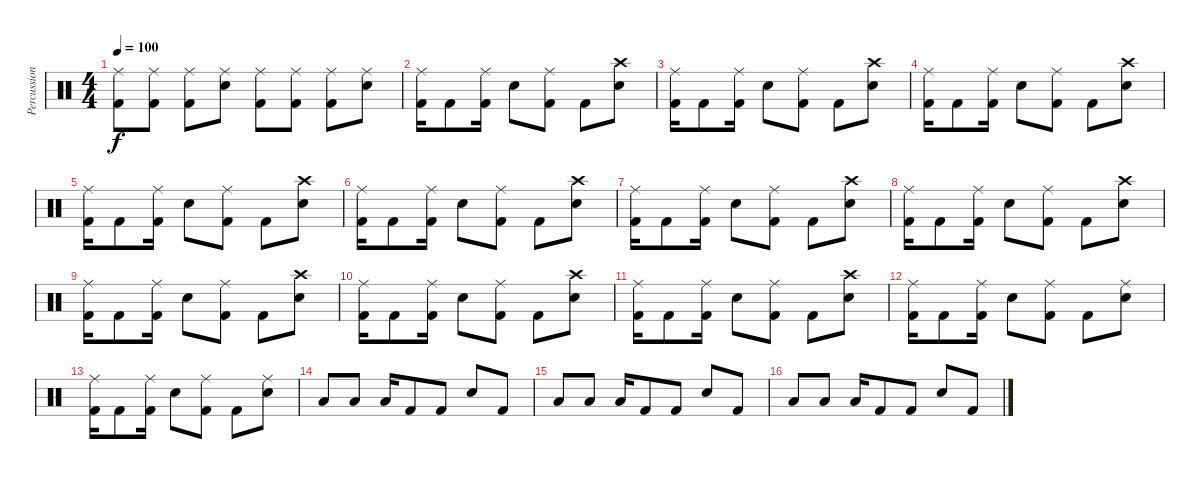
\track ("Percussion" "Percussion") {instrument percussion}
\staff {score}
\articulation defaults
\ts (4 4)
\tempo 100
\clef neutral
\ks c
("Ride (middle)" "Kick (hit) 2").8{dy f} ("Ride (middle)" "Kick (hit) 2").8 ("Ride (middle)" "Kick (hit) 2").8 ("Ride (middle)" "Electric Snare (hit)").8 ("Ride (middle)" "Kick (hit) 2").8 ("Ride (middle)" "Kick (hit) 2").8 ("Ride (middle)" "Kick (hit) 2").8 ("Ride (middle)" "Electric Snare (hit)").8 |
("Ride (middle)" "Kick (hit) 2").16 "Kick (hit) 2".8 ("Ride (middle)" "Kick (hit) 2").16 "Electric Snare (hit)".8 ("Ride (middle)" "Kick (hit) 2").8 "Kick (hit) 2".8 ("Crash high (hit)" "Electric Snare (hit)").8 |
("Ride (middle)" "Kick (hit) 2").16 "Kick (hit) 2".8 ("Ride (middle)" "Kick (hit) 2").16 "Electric Snare (hit)".8 ("Ride (middle)" "Kick (hit) 2").8 "Kick (hit) 2".8 ("Crash high (hit)" "Electric Snare (hit)").8 |
("Ride (middle)" "Kick (hit) 2").16 "Kick (hit) 2".8 ("Ride (middle)" "Kick (hit) 2").16 "Electric Snare (hit)".8 ("Ride (middle)" "Kick (hit) 2").8 "Kick (hit) 2".8 ("Crash high (hit)" "Electric Snare (hit)").8 |
("Ride (middle)" "Kick (hit) 2").16 "Kick (hit) 2".8 ("Ride (middle)" "Kick (hit) 2").16 "Electric Snare (hit)".8 ("Ride (middle)" "Kick (hit) 2").8 "Kick (hit) 2".8 ("Crash high (hit)" "Electric Snare (hit)").8 |
("Ride (middle)" "Kick (hit) 2").16 "Kick (hit) 2".8 ("Ride (middle)" "Kick (hit) 2").16 "Electric Snare (hit)".8 ("Ride (middle)" "Kick (hit) 2").8 "Kick (hit) 2".8 ("Crash high (hit)" "Electric Snare (hit)").8 |
("Ride (middle)" "Kick (hit) 2").16 "Kick (hit) 2".8 ("Ride (middle)" "Kick (hit) 2").16 "Electric Snare (hit)".8 ("Ride (middle)" "Kick (hit) 2").8 "Kick (hit) 2".8 ("Crash high (hit)" "Electric Snare (hit)").8 |
("Ride (middle)" "Kick (hit) 2").16 "Kick (hit) 2".8 ("Ride (middle)" "Kick (hit) 2").16 "Electric Snare (hit)".8 ("Ride (middle)" "Kick (hit) 2").8 "Kick (hit) 2".8 ("Crash high (hit)" "Electric Snare (hit)").8 |
("Ride (middle)" "Kick (hit) 2").16 "Kick (hit) 2".8 ("Ride (middle)" "Kick (hit) 2").16 "Electric Snare (hit)".8 ("Ride (middle)" "Kick (hit) 2").8 "Kick (hit) 2".8 ("Crash high (hit)" "Electric Snare (hit)").8 |
("Ride (middle)" "Kick (hit) 2").16 "Kick (hit) 2".8 ("Ride (middle)" "Kick (hit) 2").16 "Electric Snare (hit)".8 ("Ride (middle)" "Kick (hit) 2").8 "Kick (hit) 2".8 ("Crash high (hit)" "Electric Snare (hit)").8 |
("Ride (middle)" "Kick (hit) 2").16 "Kick (hit) 2".8 ("Ride (middle)" "Kick (hit) 2").16 "Electric Snare (hit)".8 ("Ride (middle)" "Kick (hit) 2").8 "Kick (hit) 2".8 ("Crash high (hit)" "Electric Snare (hit)").8 |
("Ride (middle)" "Kick (hit) 2").16 "Kick (hit) 2".8 ("Ride (middle)" "Kick (hit) 2").16 "Electric Snare (hit)".8 ("Ride (middle)" "Kick (hit) 2").8 "Kick (hit) 2".8 ("Ride (middle)" "Electric Snare (hit)").8 |
("Ride (middle)" "Kick (hit) 2").16 "Kick (hit) 2".8 ("Ride (middle)" "Kick (hit) 2").16 "Electric Snare (hit)".8 ("Ride (middle)" "Kick (hit) 2").8 "Kick (hit) 2".8 ("Ride (middle)" "Electric Snare (hit)").8 |
"Low Tom (hit)".8 "Low Tom (hit)".8 "Low Tom (hit)".16 "Kick (hit) 2".8 "Kick (hit) 2".8 "Electric Snare (hit)".8 "Kick (hit) 2".8 |
"Low Tom (hit)".8 "Low Tom (hit)".8 "Low Tom (hit)".16 "Kick (hit) 2".8 "Kick (hit) 2".8 "Electric Snare (hit)".8 "Kick (hit) 2".8 |
"Low Tom (hit)".8 "Low Tom (hit)".8 "Low Tom (hit)".16 "Kick (hit) 2".8 "Kick (hit) 2".8 "Electric Snare (hit)".8 "Kick (hit) 2".8
